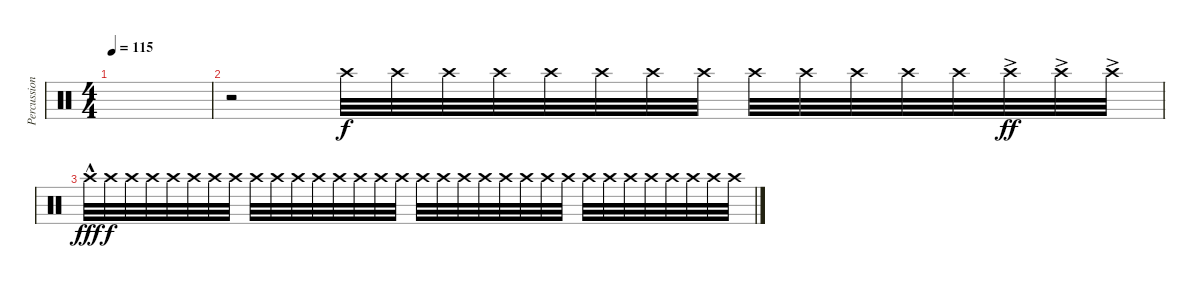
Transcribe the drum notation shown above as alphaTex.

\track ("Percussion" "Percussion") {instrument percussion}
\staff {score}
\articulation defaults
\ts (4 4)
\tempo 115
\clef neutral
\ks c
|
r.2{volume 2} "Crash high (hit)".32{volume 7} "Crash high (hit)".32 "Crash high (hit)".32 "Crash high (hit)".32 "Crash high (hit)".32 "Crash high (hit)".32 "Crash high (hit)".32 "Crash high (hit)".32 "Crash high (hit)".32 "Crash high (hit)".32 "Crash high (hit)".32 "Crash high (hit)".32 "Crash high (hit)".32 "Crash high (hit)"{ac}.32{dy ff} "Crash high (hit)"{ac}.32 "Crash high (hit)"{ac}.32 |
"Crash high (hit)"{hac}.32{dy fff volume 3} "Crash high (hit)".32{dy f} "Crash high (hit)".32 "Crash high (hit)".32 "Crash high (hit)".32 "Crash high (hit)".32 "Crash high (hit)".32 "Crash high (hit)".32 "Crash high (hit)".32 "Crash high (hit)".32 "Crash high (hit)".32 "Crash high (hit)".32 "Crash high (hit)".32 "Crash high (hit)".32 "Crash high (hit)".32 "Crash high (hit)".32 "Crash high (hit)".32 "Crash high (hit)".32 "Crash high (hit)".32 "Crash high (hit)".32 "Crash high (hit)".32 "Crash high (hit)".32 "Crash high (hit)".32 "Crash high (hit)".32 "Crash high (hit)".32 "Crash high (hit)".32 "Crash high (hit)".32 "Crash high (hit)".32 "Crash high (hit)".32 "Crash high (hit)".32 "Crash high (hit)".32 "Crash high (hit)".32
